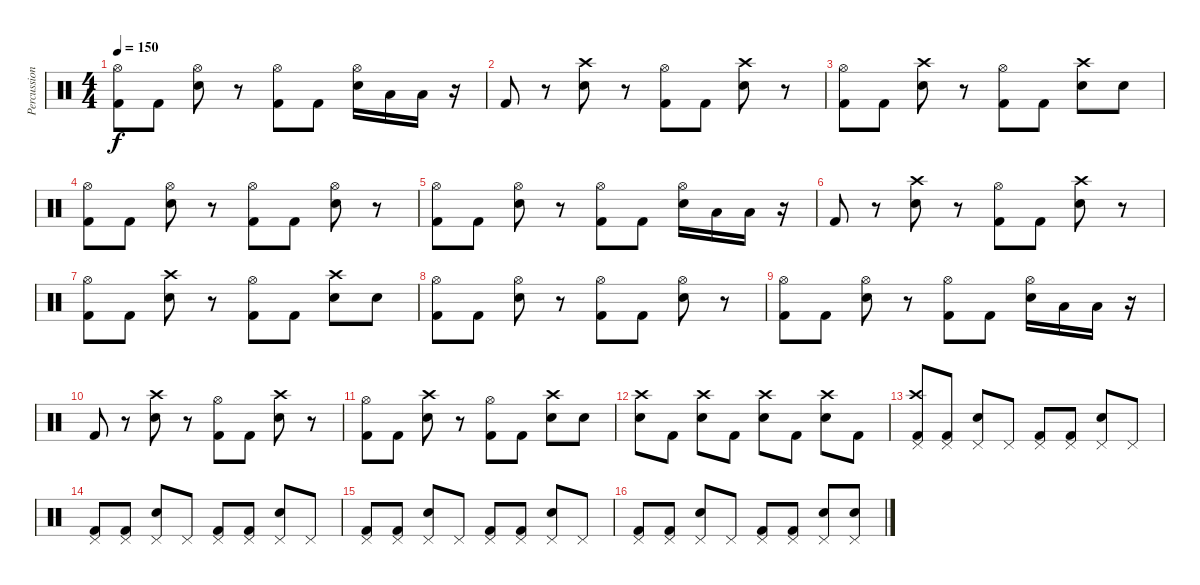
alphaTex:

\track ("Percussion" "Percussion") {instrument percussion}
\staff {score}
\articulation defaults
\ts (4 4)
\tempo 150
\clef neutral
\ks c
("Hi-Hat (open)" "Kick (hit) 2").8{dy f} "Kick (hit) 2".8 ("Hi-Hat (open)" "Snare (hit) 2").8 r.8 ("Hi-Hat (open)" "Kick (hit) 2").8 "Kick (hit) 2".8 ("Hi-Hat (open)" "Snare (hit) 2").16 "Low Tom (hit)".16 "Low Tom (hit)".16 r.16 |
"Kick (hit) 2".8 r.8 ("Crash high (hit)" "Snare (hit) 2").8 r.8 ("Hi-Hat (open)" "Kick (hit) 2").8 "Kick (hit) 2".8 ("Crash high (hit)" "Snare (hit) 2").8 r.8 |
("Hi-Hat (open)" "Kick (hit) 2").8 "Kick (hit) 2".8 ("Crash high (hit)" "Snare (hit) 2").8 r.8 ("Hi-Hat (open)" "Kick (hit) 2").8 "Kick (hit) 2".8 ("Crash high (hit)" "Snare (hit) 2").8 "Snare (hit) 2".8 |
("Hi-Hat (open)" "Kick (hit) 2").8 "Kick (hit) 2".8 ("Hi-Hat (open)" "Snare (hit) 2").8 r.8 ("Hi-Hat (open)" "Kick (hit) 2").8 "Kick (hit) 2".8 ("Hi-Hat (open)" "Snare (hit) 2").8 r.8 |
("Hi-Hat (open)" "Kick (hit) 2").8 "Kick (hit) 2".8 ("Hi-Hat (open)" "Snare (hit) 2").8 r.8 ("Hi-Hat (open)" "Kick (hit) 2").8 "Kick (hit) 2".8 ("Hi-Hat (open)" "Snare (hit) 2").16 "Low Tom (hit)".16 "Low Tom (hit)".16 r.16 |
"Kick (hit) 2".8 r.8 ("Crash high (hit)" "Snare (hit) 2").8 r.8 ("Hi-Hat (open)" "Kick (hit) 2").8 "Kick (hit) 2".8 ("Crash high (hit)" "Snare (hit) 2").8 r.8 |
("Hi-Hat (open)" "Kick (hit) 2").8 "Kick (hit) 2".8 ("Crash high (hit)" "Snare (hit) 2").8 r.8 ("Hi-Hat (open)" "Kick (hit) 2").8 "Kick (hit) 2".8 ("Crash high (hit)" "Snare (hit) 2").8 "Snare (hit) 2".8 |
("Hi-Hat (open)" "Kick (hit) 2").8 "Kick (hit) 2".8 ("Hi-Hat (open)" "Snare (hit) 2").8 r.8 ("Hi-Hat (open)" "Kick (hit) 2").8 "Kick (hit) 2".8 ("Hi-Hat (open)" "Snare (hit) 2").8 r.8 |
("Hi-Hat (open)" "Kick (hit) 2").8 "Kick (hit) 2".8 ("Hi-Hat (open)" "Snare (hit) 2").8 r.8 ("Hi-Hat (open)" "Kick (hit) 2").8 "Kick (hit) 2".8 ("Hi-Hat (open)" "Snare (hit) 2").16 "Low Tom (hit)".16 "Low Tom (hit)".16 r.16 |
"Kick (hit) 2".8 r.8 ("Crash high (hit)" "Snare (hit) 2").8 r.8 ("Hi-Hat (open)" "Kick (hit) 2").8 "Kick (hit) 2".8 ("Crash high (hit)" "Snare (hit) 2").8 r.8 |
("Hi-Hat (open)" "Kick (hit) 2").8 "Kick (hit) 2".8 ("Crash high (hit)" "Snare (hit) 2").8 r.8 ("Hi-Hat (open)" "Kick (hit) 2").8 "Kick (hit) 2".8 ("Crash high (hit)" "Snare (hit) 2").8 "Snare (hit) 2".8 |
("Crash high (hit)" "Snare (hit) 2").8 "Kick (hit) 2".8 ("Crash high (hit)" "Snare (hit) 2").8 "Kick (hit) 2".8 ("Crash high (hit)" "Snare (hit) 2").8 "Kick (hit) 2".8 ("Crash high (hit)" "Snare (hit) 2").8 "Kick (hit) 2".8 |
("Crash high (hit)" "Pedal Hi-Hat (hit)" "Kick (hit) 2").8 ("Pedal Hi-Hat (hit)" "Kick (hit) 2").8 ("Pedal Hi-Hat (hit)" "Snare (hit) 2").8 "Pedal Hi-Hat (hit)".8 ("Pedal Hi-Hat (hit)" "Kick (hit) 2").8 ("Pedal Hi-Hat (hit)" "Kick (hit) 2").8 ("Pedal Hi-Hat (hit)" "Snare (hit) 2").8 "Pedal Hi-Hat (hit)".8 |
("Pedal Hi-Hat (hit)" "Kick (hit) 2").8 ("Pedal Hi-Hat (hit)" "Kick (hit) 2").8 ("Pedal Hi-Hat (hit)" "Snare (hit) 2").8 "Pedal Hi-Hat (hit)".8 ("Pedal Hi-Hat (hit)" "Kick (hit) 2").8 ("Pedal Hi-Hat (hit)" "Kick (hit) 2").8 ("Pedal Hi-Hat (hit)" "Snare (hit) 2").8 "Pedal Hi-Hat (hit)".8 |
("Pedal Hi-Hat (hit)" "Kick (hit) 2").8 ("Pedal Hi-Hat (hit)" "Kick (hit) 2").8 ("Pedal Hi-Hat (hit)" "Snare (hit) 2").8 "Pedal Hi-Hat (hit)".8 ("Pedal Hi-Hat (hit)" "Kick (hit) 2").8 ("Pedal Hi-Hat (hit)" "Kick (hit) 2").8 ("Pedal Hi-Hat (hit)" "Snare (hit) 2").8 "Pedal Hi-Hat (hit)".8 |
("Pedal Hi-Hat (hit)" "Kick (hit) 2").8 ("Pedal Hi-Hat (hit)" "Kick (hit) 2").8 ("Pedal Hi-Hat (hit)" "Snare (hit) 2").8 "Pedal Hi-Hat (hit)".8 ("Pedal Hi-Hat (hit)" "Kick (hit) 2").8 ("Pedal Hi-Hat (hit)" "Kick (hit) 2").8 ("Pedal Hi-Hat (hit)" "Snare (hit) 2").8 ("Pedal Hi-Hat (hit)" "Snare (hit) 2").8
